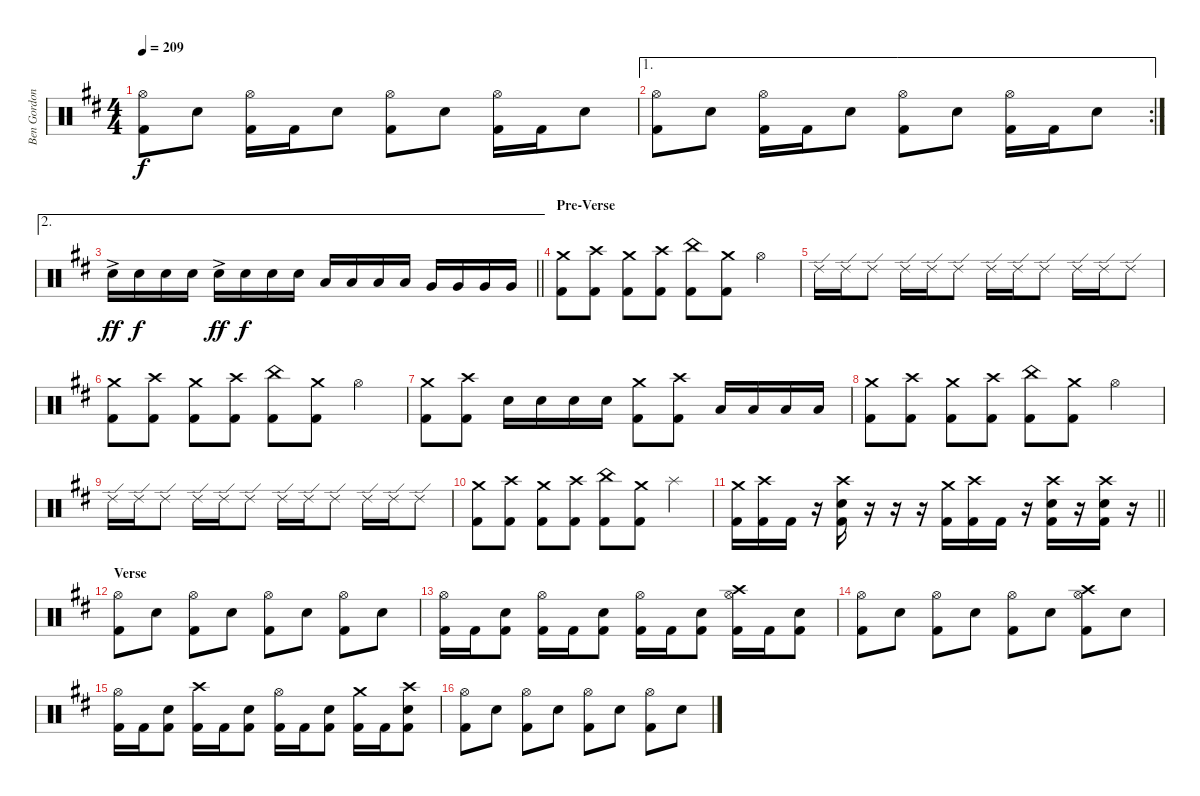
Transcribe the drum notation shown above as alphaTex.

\track ("Ben Gordon" "Ben Gordon") {instrument percussion}
\staff {score}
\articulation defaults
\ts (4 4)
\tempo 209
\clef neutral
\ks d
("Hi-Hat (open)" "Kick (hit) 2").8{dy f} "Electric Snare (hit)".8 ("Hi-Hat (open)" "Kick (hit) 2").16 "Kick (hit) 2".16 "Electric Snare (hit)".8 ("Hi-Hat (open)" "Kick (hit) 2").8 "Electric Snare (hit)".8 ("Hi-Hat (open)" "Kick (hit) 2").16 "Kick (hit) 2".16 "Electric Snare (hit)".8 |
\ae 1
\rc 2
("Hi-Hat (open)" "Kick (hit) 2").8 "Electric Snare (hit)".8 ("Hi-Hat (open)" "Kick (hit) 2").16 "Kick (hit) 2".16 "Electric Snare (hit)".8 ("Hi-Hat (open)" "Kick (hit) 2").8 "Electric Snare (hit)".8 ("Hi-Hat (open)" "Kick (hit) 2").16 "Kick (hit) 2".16 "Electric Snare (hit)".8 |
\ae 2
\barLineRight lightlight "Electric Snare (hit)"{ac}.16{dy ff} "Electric Snare (hit)".16{dy f} "Electric Snare (hit)".16 "Electric Snare (hit)".16 "Electric Snare (hit)"{ac}.16{dy ff} "Electric Snare (hit)".16{dy f} "Electric Snare (hit)".16 "Electric Snare (hit)".16 "Low Tom (hit)".16 "Low Tom (hit)".16 "Low Tom (hit)".16 "Low Tom (hit)".16 "Very Low Tom (hit)".16 "Very Low Tom (hit)".16 "Very Low Tom (hit)".16 "Very Low Tom (hit)".16
|
\section ("" "Pre-Verse")
("Crash medium (hit)" "Kick (hit) 2").8 ("Crash high (hit)" "Kick (hit) 2").8 ("Crash medium (hit)" "Kick (hit) 2").8 ("Crash high (hit)" "Kick (hit) 2").8 ("China (hit)" "Kick (hit) 2").8 ("Crash medium (hit)" "Kick (hit) 2").8 "Hi-Hat (open)".4 |
"Ride (edge) 2".16 "Ride (edge) 2".16 "Ride (edge) 2".8 "Ride (edge) 2".16 "Ride (edge) 2".16 "Ride (edge) 2".8 "Ride (edge) 2".16 "Ride (edge) 2".16 "Ride (edge) 2".8 "Ride (edge) 2".16 "Ride (edge) 2".16 "Ride (edge) 2".8 |
("Crash medium (hit)" "Kick (hit) 2").8 ("Crash high (hit)" "Kick (hit) 2").8 ("Crash medium (hit)" "Kick (hit) 2").8 ("Crash high (hit)" "Kick (hit) 2").8 ("China (hit)" "Kick (hit) 2").8 ("Crash medium (hit)" "Kick (hit) 2").8 "Hi-Hat (open)".4 |
("Crash medium (hit)" "Kick (hit) 2").8 ("Crash high (hit)" "Kick (hit) 2").8 "Electric Snare (hit)".16 "Electric Snare (hit)".16 "Electric Snare (hit)".16 "Electric Snare (hit)".16 ("Crash medium (hit)" "Kick (hit) 2").8 ("Crash high (hit)" "Kick (hit) 2").8 "Low Tom (hit)".16 "Low Tom (hit)".16 "Low Tom (hit)".16 "Low Tom (hit)".16 |
("Crash medium (hit)" "Kick (hit) 2").8 ("Crash high (hit)" "Kick (hit) 2").8 ("Crash medium (hit)" "Kick (hit) 2").8 ("Crash high (hit)" "Kick (hit) 2").8 ("China (hit)" "Kick (hit) 2").8 ("Crash medium (hit)" "Kick (hit) 2").8 "Hi-Hat (open)".4 |
"Ride (edge) 2".16 "Ride (edge) 2".16 "Ride (edge) 2".8 "Ride (edge) 2".16 "Ride (edge) 2".16 "Ride (edge) 2".8 "Ride (edge) 2".16 "Ride (edge) 2".16 "Ride (edge) 2".8 "Ride (edge) 2".16 "Ride (edge) 2".16 "Ride (edge) 2".8 |
("Crash medium (hit)" "Kick (hit) 2").8 ("Crash high (hit)" "Kick (hit) 2").8 ("Crash medium (hit)" "Kick (hit) 2").8 ("Crash high (hit)" "Kick (hit) 2").8 ("China (hit)" "Kick (hit) 2").8 ("Crash medium (hit)" "Kick (hit) 2").8 "Splash (hit)".4{volume 16} |
\barLineRight lightlight
("Crash medium (hit)" "Kick (hit) 2").16 ("Crash high (hit)" "Kick (hit) 2").16 "Kick (hit) 2".16 r.16 ("Crash high (hit)" "Electric Snare (hit)" "Kick (hit) 2").16 r.16 r.16 r.16 ("Crash medium (hit)" "Kick (hit) 2").16 ("Crash high (hit)" "Kick (hit) 2").16 "Kick (hit) 2".16 r.16 ("Crash high (hit)" "Electric Snare (hit)" "Kick (hit) 2").16 r.16 ("Crash high (hit)" "Electric Snare (hit)" "Kick (hit) 2").16 r.16 |
\section ("" "Verse")
("Hi-Hat (open)" "Kick (hit) 2").8 "Electric Snare (hit)".8 ("Hi-Hat (open)" "Kick (hit) 2").8 "Electric Snare (hit)".8 ("Hi-Hat (open)" "Kick (hit) 2").8 "Electric Snare (hit)".8 ("Hi-Hat (open)" "Kick (hit) 2").8 "Electric Snare (hit)".8 |
("Hi-Hat (open)" "Kick (hit) 2").16 "Kick (hit) 2".16 ("Electric Snare (hit)" "Kick (hit) 2").8 ("Hi-Hat (open)" "Kick (hit) 2").16 "Kick (hit) 2".16 ("Electric Snare (hit)" "Kick (hit) 2").8 ("Hi-Hat (open)" "Kick (hit) 2").16 "Kick (hit) 2".16 ("Electric Snare (hit)" "Kick (hit) 2").8 ("Crash high (hit)" "Hi-Hat (open)" "Kick (hit) 2").16 "Kick (hit) 2".16 ("Electric Snare (hit)" "Kick (hit) 2").8 |
("Hi-Hat (open)" "Kick (hit) 2").8 "Electric Snare (hit)".8 ("Hi-Hat (open)" "Kick (hit) 2").8 "Electric Snare (hit)".8 ("Hi-Hat (open)" "Kick (hit) 2").8 "Electric Snare (hit)".8 ("Crash high (hit)" "Hi-Hat (open)" "Kick (hit) 2").8 "Electric Snare (hit)".8 |
("Hi-Hat (open)" "Kick (hit) 2").16 "Kick (hit) 2".16 ("Electric Snare (hit)" "Kick (hit) 2").8 ("Crash high (hit)" "Kick (hit) 2").16 "Kick (hit) 2".16 ("Electric Snare (hit)" "Kick (hit) 2").8 ("Hi-Hat (open)" "Kick (hit) 2").16 "Kick (hit) 2".16 ("Electric Snare (hit)" "Kick (hit) 2").8 ("Crash medium (hit)" "Kick (hit) 2").16 "Kick (hit) 2".16 ("Crash high (hit)" "Electric Snare (hit)" "Kick (hit) 2").8 |
("Hi-Hat (open)" "Kick (hit) 2").8 "Electric Snare (hit)".8 ("Hi-Hat (open)" "Kick (hit) 2").8 "Electric Snare (hit)".8 ("Hi-Hat (open)" "Kick (hit) 2").8 "Electric Snare (hit)".8 ("Hi-Hat (open)" "Kick (hit) 2").8 "Electric Snare (hit)".8
